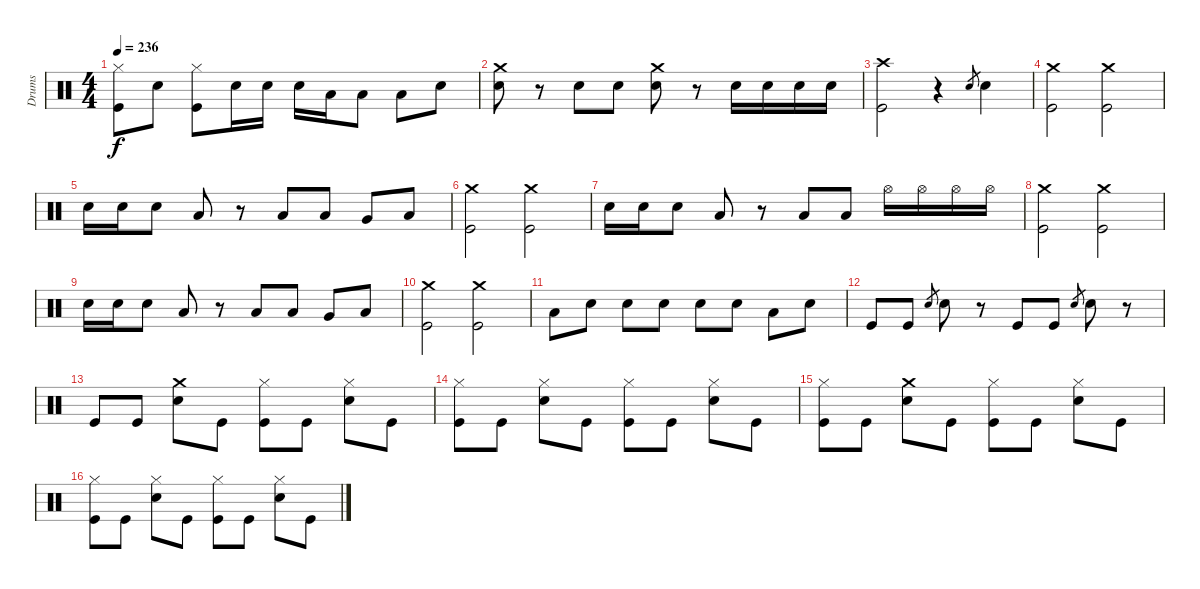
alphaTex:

\track ("Drums" "Drums") {instrument percussion}
\staff {score}
\articulation defaults
\ts (4 4)
\tempo 236
\clef neutral
\ks c
("Hi-Hat (closed)" "Kick (hit)").8{dy f} "Snare (hit) 2".8 ("Hi-Hat (closed)" "Kick (hit)").8 "Snare (hit) 2".16 "Snare (hit) 2".16 "Snare (hit) 2".16 "Low Tom (hit)".16 "Low Tom (hit)".8 "Low Tom (hit)".8 "Snare (hit) 2".8 |
("Crash medium (hit)" "Snare (hit) 2").8 r.8 "Snare (hit) 2".8 "Snare (hit) 2".8 ("Crash medium (hit)" "Snare (hit) 2").8 r.8 "Snare (hit) 2".16 "Snare (hit) 2".16 "Snare (hit) 2".16 "Snare (hit) 2".16 |
("Crash high (hit)" "Kick (hit)").2 r.4 "Snare (hit) 2".8{gr} "Snare (hit) 2".4 |
("Crash medium (hit)" "Kick (hit)").2 ("Crash medium (hit)" "Kick (hit)").2 |
"Snare (hit) 2".16 "Snare (hit) 2".16 "Snare (hit) 2".8 "Low Tom (hit)".8 r.8 "Low Tom (hit)".8 "Low Tom (hit)".8 "Very Low Tom (hit)".8 "Low Floor Tom (hit)".8 |
("Crash medium (hit)" "Kick (hit)").2 ("Crash medium (hit)" "Kick (hit)").2 |
"Snare (hit) 2".16 "Snare (hit) 2".16 "Snare (hit) 2".8 "Low Tom (hit)".8 r.8 "Low Tom (hit)".8 "Low Tom (hit)".8 "Hi-Hat (open)".16 "Hi-Hat (open)".16 "Hi-Hat (open)".16 "Hi-Hat (open)".16 |
("Crash medium (hit)" "Kick (hit)").2 ("Crash medium (hit)" "Kick (hit)").2 |
"Snare (hit) 2".16 "Snare (hit) 2".16 "Snare (hit) 2".8 "Low Tom (hit)".8 r.8 "Low Tom (hit)".8 "Low Tom (hit)".8 "Very Low Tom (hit)".8 "Low Floor Tom (hit)".8 |
("Crash medium (hit)" "Kick (hit)").2 ("Crash medium (hit)" "Kick (hit)").2 |
"Low Tom (hit)".8 "Snare (hit) 2".8 "Snare (hit) 2".8 "Snare (hit) 2".8 "Snare (hit) 2".8 "Snare (hit) 2".8 "Low Tom (hit)".8 "Snare (hit) 2".8 |
"Kick (hit)".8 "Kick (hit)".8 "Snare (hit) 2".8{gr} "Snare (hit) 2".8 r.8 "Kick (hit)".8 "Kick (hit)".8 "Snare (hit) 2".8{gr} "Snare (hit) 2".8 r.8 |
"Kick (hit)".8 "Kick (hit)".8 ("Crash medium (hit)" "Snare (hit) 2").8 "Kick (hit)".8 ("Hi-Hat (closed)" "Kick (hit)").8 "Kick (hit)".8 ("Hi-Hat (closed)" "Snare (hit) 2").8 "Kick (hit)".8 |
("Hi-Hat (closed)" "Kick (hit)").8 "Kick (hit)".8 ("Hi-Hat (closed)" "Snare (hit) 2").8 "Kick (hit)".8 ("Hi-Hat (closed)" "Kick (hit)").8 "Kick (hit)".8 ("Hi-Hat (closed)" "Snare (hit) 2").8 "Kick (hit)".8 |
("Hi-Hat (closed)" "Kick (hit)").8 "Kick (hit)".8 ("Crash medium (hit)" "Snare (hit) 2").8 "Kick (hit)".8 ("Hi-Hat (closed)" "Kick (hit)").8 "Kick (hit)".8 ("Hi-Hat (closed)" "Snare (hit) 2").8 "Kick (hit)".8 |
("Hi-Hat (closed)" "Kick (hit)").8 "Kick (hit)".8 ("Hi-Hat (closed)" "Snare (hit) 2").8 "Kick (hit)".8 ("Hi-Hat (closed)" "Kick (hit)").8 "Kick (hit)".8 ("Hi-Hat (closed)" "Snare (hit) 2").8 "Kick (hit)".8
